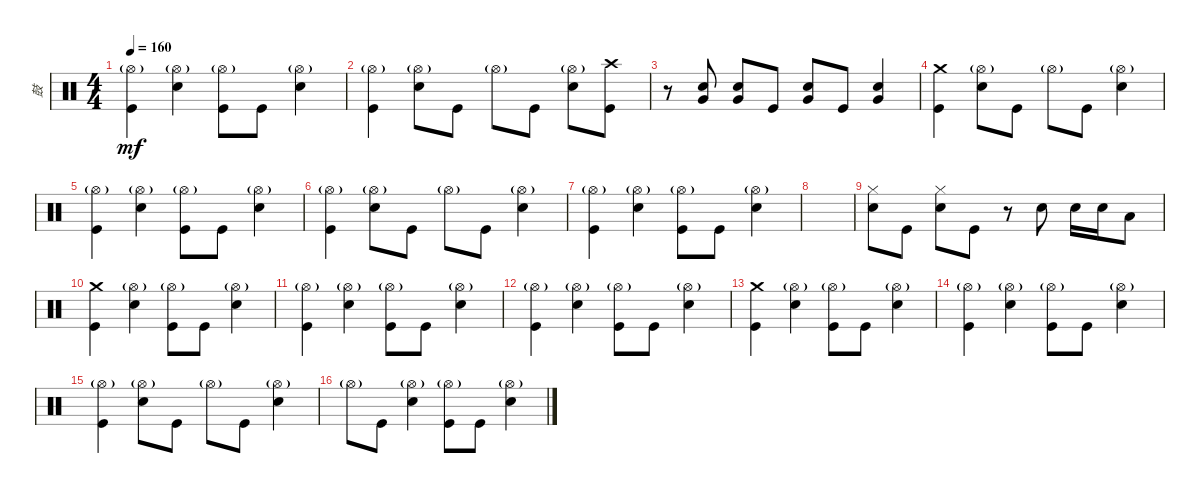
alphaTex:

\track ("鼓" "鼓") {instrument percussion}
\staff {score}
\articulation defaults
\ts (4 4)
\tempo 160
\clef neutral
\ks c
("Kick (hit)" "Hi-Hat (open)"{g}).4{dy mf} ("Hi-Hat (open)"{g} "Snare (hit) 2").4 ("Kick (hit)" "Hi-Hat (open)"{g}).8 "Kick (hit)".8 ("Snare (hit) 2" "Hi-Hat (open)"{g}).4 |
("Kick (hit)" "Hi-Hat (open)"{g}).4 ("Snare (hit) 2" "Hi-Hat (open)"{g}).8 "Kick (hit)".8 "Hi-Hat (open)"{g}.8 "Kick (hit)".8 ("Snare (hit) 2" "Hi-Hat (open)"{g}).8 ("Kick (hit)" "Crash high (hit)").8 |
r.8 ("Snare (hit) 2" "Very Low Tom (hit)").8 ("Snare (hit) 2" "Very Low Tom (hit)").8 "Kick (hit)".8 ("Snare (hit) 2" "Very Low Tom (hit)").8 "Kick (hit)".8 ("Snare (hit) 2" "Very Low Tom (hit)").4 |
("Kick (hit)" "Crash medium (hit)").4 ("Snare (hit) 2" "Hi-Hat (open)"{g}).8 "Kick (hit)".8 "Hi-Hat (open)"{g}.8 "Kick (hit)".8 ("Snare (hit) 2" "Hi-Hat (open)"{g}).4 |
("Kick (hit)" "Hi-Hat (open)"{g}).4 ("Hi-Hat (open)"{g} "Snare (hit) 2").4 ("Kick (hit)" "Hi-Hat (open)"{g}).8 "Kick (hit)".8 ("Snare (hit) 2" "Hi-Hat (open)"{g}).4 |
("Kick (hit)" "Hi-Hat (open)"{g}).4 ("Snare (hit) 2" "Hi-Hat (open)"{g}).8 "Kick (hit)".8 "Hi-Hat (open)"{g}.8 "Kick (hit)".8 ("Snare (hit) 2" "Hi-Hat (open)"{g}).4 |
("Kick (hit)" "Hi-Hat (open)"{g}).4 ("Hi-Hat (open)"{g} "Snare (hit) 2").4 ("Kick (hit)" "Hi-Hat (open)"{g}).8 "Kick (hit)".8 ("Snare (hit) 2" "Hi-Hat (open)"{g}).4 |
|
("Snare (hit) 2" "Hi-Hat (closed)").8 "Kick (hit)".8 ("Snare (hit) 2" "Hi-Hat (closed)").8 "Kick (hit)".8 r.8 "Snare (hit) 2".8 "Snare (hit) 2".16 "Snare (hit) 2".16 "Low Tom (hit)".8 |
("Kick (hit)" "Crash medium (hit)").4 ("Hi-Hat (open)"{g} "Snare (hit) 2").4 ("Kick (hit)" "Hi-Hat (open)"{g}).8 "Kick (hit)".8 ("Snare (hit) 2" "Hi-Hat (open)"{g}).4 |
("Kick (hit)" "Hi-Hat (open)"{g}).4 ("Hi-Hat (open)"{g} "Snare (hit) 2").4 ("Kick (hit)" "Hi-Hat (open)"{g}).8 "Kick (hit)".8 ("Snare (hit) 2" "Hi-Hat (open)"{g}).4 |
("Kick (hit)" "Hi-Hat (open)"{g}).4 ("Hi-Hat (open)"{g} "Snare (hit) 2").4 ("Kick (hit)" "Hi-Hat (open)"{g}).8 "Kick (hit)".8 ("Snare (hit) 2" "Hi-Hat (open)"{g}).4 |
("Kick (hit)" "Crash medium (hit)").4 ("Hi-Hat (open)"{g} "Snare (hit) 2").4 ("Kick (hit)" "Hi-Hat (open)"{g}).8 "Kick (hit)".8 ("Snare (hit) 2" "Hi-Hat (open)"{g}).4 |
("Kick (hit)" "Hi-Hat (open)"{g}).4 ("Hi-Hat (open)"{g} "Snare (hit) 2").4 ("Kick (hit)" "Hi-Hat (open)"{g}).8 "Kick (hit)".8 ("Snare (hit) 2" "Hi-Hat (open)"{g}).4 |
("Kick (hit)" "Hi-Hat (open)"{g}).4 ("Snare (hit) 2" "Hi-Hat (open)"{g}).8 "Kick (hit)".8 "Hi-Hat (open)"{g}.8 "Kick (hit)".8 ("Snare (hit) 2" "Hi-Hat (open)"{g}).4 |
"Hi-Hat (open)"{g}.8 "Kick (hit)".8 ("Snare (hit) 2" "Hi-Hat (open)"{g}).4 ("Kick (hit)" "Hi-Hat (open)"{g}).8 "Kick (hit)".8 ("Snare (hit) 2" "Hi-Hat (open)"{g}).4
